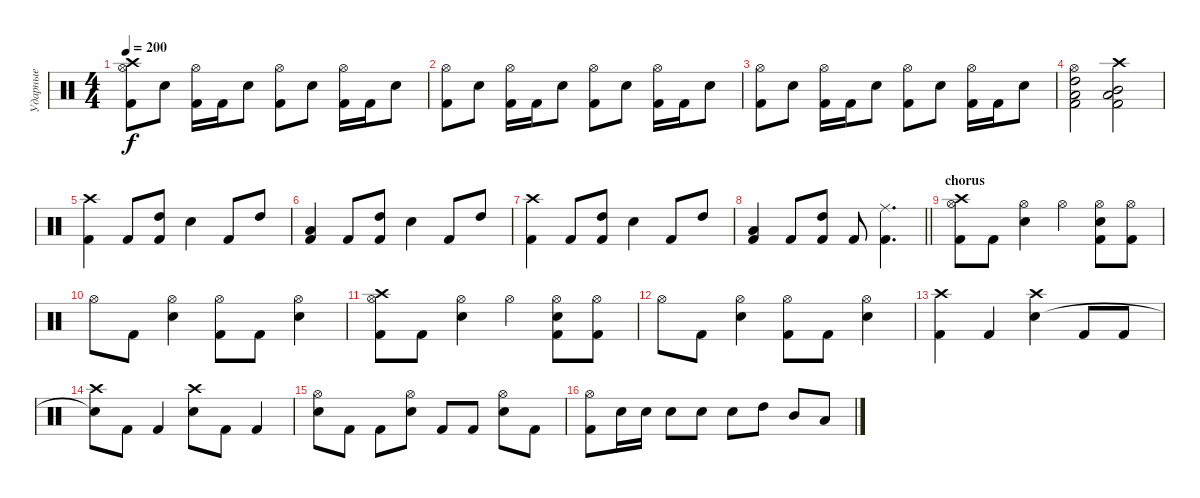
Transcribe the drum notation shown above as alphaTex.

\track ("Ударные" "Ударные") {instrument percussion}
\staff {score}
\articulation defaults
\ts (4 4)
\tempo 200
\clef neutral
\ks c
("Hi-Hat (open)" "Crash high (hit)" "Kick (hit) 2").8{dy f} "Electric Snare (hit)".8 ("Hi-Hat (open)" "Kick (hit) 2").16 "Kick (hit) 2".16 "Electric Snare (hit)".8 ("Hi-Hat (open)" "Kick (hit) 2").8 "Electric Snare (hit)".8 ("Hi-Hat (open)" "Kick (hit) 2").16 "Kick (hit) 2".16 "Electric Snare (hit)".8 |
("Hi-Hat (open)" "Kick (hit) 2").8 "Electric Snare (hit)".8 ("Hi-Hat (open)" "Kick (hit) 2").16 "Kick (hit) 2".16 "Electric Snare (hit)".8 ("Hi-Hat (open)" "Kick (hit) 2").8 "Electric Snare (hit)".8 ("Hi-Hat (open)" "Kick (hit) 2").16 "Kick (hit) 2".16 "Electric Snare (hit)".8 |
("Hi-Hat (open)" "Kick (hit) 2").8 "Electric Snare (hit)".8 ("Hi-Hat (open)" "Kick (hit) 2").16 "Kick (hit) 2".16 "Electric Snare (hit)".8 ("Hi-Hat (open)" "Kick (hit) 2").8 "Electric Snare (hit)".8 ("Hi-Hat (open)" "Kick (hit) 2").16 "Kick (hit) 2".16 "Electric Snare (hit)".8 |
("Hi-Hat (open)" "High Tom (hit)" "Low Tom (hit)" "Kick (hit) 2").2 ("Crash high (hit)" "Mid Tom (hit)" "Low Tom (hit)" "Kick (hit) 2").2 |
("Crash high (hit)" "Kick (hit) 2").4 "Kick (hit) 2".8 ("High Tom (hit)" "Kick (hit) 2").8 "Electric Snare (hit)".4 "Kick (hit) 2".8 "High Tom (hit)".8 |
("Low Tom (hit)" "Kick (hit) 2").4 "Kick (hit) 2".8 ("High Tom (hit)" "Kick (hit) 2").8 "Electric Snare (hit)".4 "Kick (hit) 2".8 "High Tom (hit)".8 |
("Crash high (hit)" "Kick (hit) 2").4 "Kick (hit) 2".8 ("High Tom (hit)" "Kick (hit) 2").8 "Electric Snare (hit)".4 "Kick (hit) 2".8 "High Tom (hit)".8 |
\barLineRight lightlight
("Low Tom (hit)" "Kick (hit) 2").4 "Kick (hit) 2".8 ("High Tom (hit)" "Kick (hit) 2").8 "Kick (hit) 2".8 ("Ride (middle)" "Kick (hit) 2").4{d} |
\section ("" "chorus")
("Crash high (hit)" "Hi-Hat (open)" "Kick (hit) 2").8 "Kick (hit) 2".8 ("Hi-Hat (open)" "Electric Snare (hit)").4 "Hi-Hat (open)".4 ("Hi-Hat (open)" "Electric Snare (hit)" "Kick (hit) 2").8 ("Hi-Hat (open)" "Kick (hit) 2").8 |
"Hi-Hat (open)".8 "Kick (hit) 2".8 ("Hi-Hat (open)" "Electric Snare (hit)").4 ("Hi-Hat (open)" "Kick (hit) 2").8 "Kick (hit) 2".8 ("Hi-Hat (open)" "Electric Snare (hit)").4 |
("Hi-Hat (open)" "Crash high (hit)" "Kick (hit) 2").8 "Kick (hit) 2".8 ("Hi-Hat (open)" "Electric Snare (hit)").4 "Hi-Hat (open)".4 ("Hi-Hat (open)" "Electric Snare (hit)" "Kick (hit) 2").8 ("Hi-Hat (open)" "Kick (hit) 2").8 |
"Hi-Hat (open)".8 "Kick (hit) 2".8 ("Hi-Hat (open)" "Electric Snare (hit)").4 ("Hi-Hat (open)" "Kick (hit) 2").8 "Kick (hit) 2".8 ("Hi-Hat (open)" "Electric Snare (hit)").4 |
("Crash high (hit)" "Kick (hit) 2").4 "Kick (hit) 2".4 ("Crash high (hit)" "Electric Snare (hit)").4 "Kick (hit) 2".8 "Kick (hit) 2".8 |
("Crash high (hit)" "Snare (hit)"{t}).8 "Kick (hit) 2".8 "Kick (hit) 2".4 ("Crash high (hit)" "Electric Snare (hit)").8 "Kick (hit) 2".8 "Kick (hit) 2".4 |
("Hi-Hat (open)" "Electric Snare (hit)").8 "Kick (hit) 2".8 "Kick (hit) 2".8 ("Hi-Hat (open)" "Electric Snare (hit)").8 "Kick (hit) 2".8 "Kick (hit) 2".8 ("Hi-Hat (open)" "Electric Snare (hit)").8 "Kick (hit) 2".8 |
("Hi-Hat (open)" "Kick (hit) 2").8 "Electric Snare (hit)".16 "Electric Snare (hit)".16 "Electric Snare (hit)".8 "Electric Snare (hit)".8 "Electric Snare (hit)".8 "High Tom (hit)".8 "Mid Tom (hit)".8 "Low Tom (hit)".8
